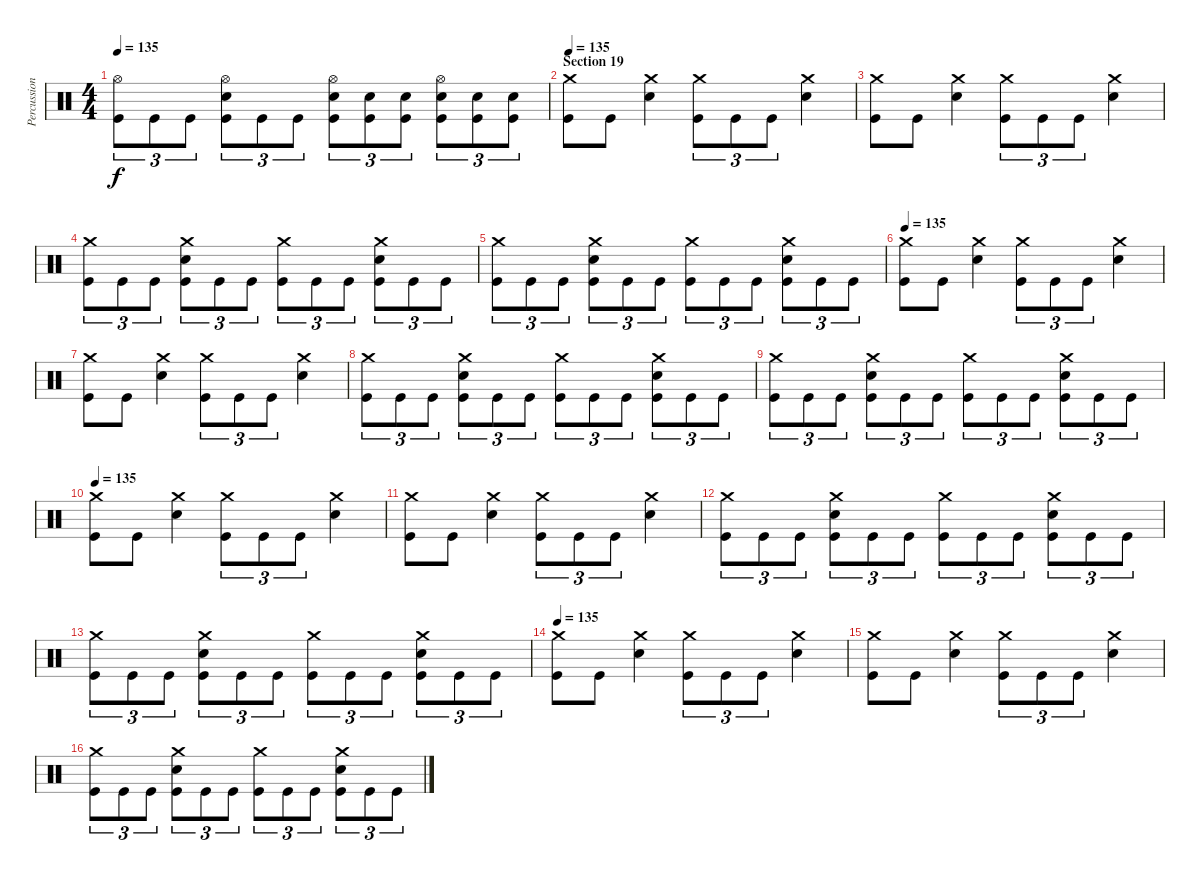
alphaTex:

\track ("Percussions" "Percussion") {instrument percussion}
\staff {score}
\articulation defaults
\ts (4 4)
\tempo 135
\clef neutral
\ks c
("Hi-Hat (open)" "Kick (hit)").8{tu (3 2) dy f} "Kick (hit)".8{tu (3 2)} "Kick (hit)".8{tu (3 2)} ("Hi-Hat (open)" "Electric Snare (hit)" "Kick (hit)").8{tu (3 2)} "Kick (hit)".8{tu (3 2)} "Kick (hit)".8{tu (3 2)} ("Hi-Hat (open)" "Electric Snare (hit)" "Kick (hit)").8{tu (3 2)} ("Electric Snare (hit)" "Kick (hit)").8{tu (3 2)} ("Electric Snare (hit)" "Kick (hit)").8{tu (3 2)} ("Hi-Hat (open)" "Electric Snare (hit)" "Kick (hit)").8{tu (3 2)} ("Electric Snare (hit)" "Kick (hit)").8{tu (3 2)} ("Electric Snare (hit)" "Kick (hit)").8{tu (3 2)} |
\section ("" "Section 19")
\tempo 135
("Crash medium (hit)" "Kick (hit)").8 "Kick (hit)".8 ("Crash medium (hit)" "Electric Snare (hit)").4 ("Crash medium (hit)" "Kick (hit)").8{tu (3 2)} "Kick (hit)".8{tu (3 2)} "Kick (hit)".8{tu (3 2)} ("Crash medium (hit)" "Electric Snare (hit)").4 |
("Crash medium (hit)" "Kick (hit)").8 "Kick (hit)".8 ("Crash medium (hit)" "Electric Snare (hit)").4 ("Crash medium (hit)" "Kick (hit)").8{tu (3 2)} "Kick (hit)".8{tu (3 2)} "Kick (hit)".8{tu (3 2)} ("Crash medium (hit)" "Electric Snare (hit)").4 |
("Crash medium (hit)" "Kick (hit)").8{tu (3 2)} "Kick (hit)".8{tu (3 2)} "Kick (hit)".8{tu (3 2)} ("Crash medium (hit)" "Electric Snare (hit)" "Kick (hit)").8{tu (3 2)} "Kick (hit)".8{tu (3 2)} "Kick (hit)".8{tu (3 2)} ("Crash medium (hit)" "Kick (hit)").8{tu (3 2)} "Kick (hit)".8{tu (3 2)} "Kick (hit)".8{tu (3 2)} ("Crash medium (hit)" "Electric Snare (hit)" "Kick (hit)").8{tu (3 2)} "Kick (hit)".8{tu (3 2)} "Kick (hit)".8{tu (3 2)} |
("Crash medium (hit)" "Kick (hit)").8{tu (3 2)} "Kick (hit)".8{tu (3 2)} "Kick (hit)".8{tu (3 2)} ("Crash medium (hit)" "Electric Snare (hit)" "Kick (hit)").8{tu (3 2)} "Kick (hit)".8{tu (3 2)} "Kick (hit)".8{tu (3 2)} ("Crash medium (hit)" "Kick (hit)").8{tu (3 2)} "Kick (hit)".8{tu (3 2)} "Kick (hit)".8{tu (3 2)} ("Crash medium (hit)" "Electric Snare (hit)" "Kick (hit)").8{tu (3 2)} "Kick (hit)".8{tu (3 2)} "Kick (hit)".8{tu (3 2)} |
\tempo 135
("Crash medium (hit)" "Kick (hit)").8 "Kick (hit)".8 ("Crash medium (hit)" "Electric Snare (hit)").4 ("Crash medium (hit)" "Kick (hit)").8{tu (3 2)} "Kick (hit)".8{tu (3 2)} "Kick (hit)".8{tu (3 2)} ("Crash medium (hit)" "Electric Snare (hit)").4 |
("Crash medium (hit)" "Kick (hit)").8 "Kick (hit)".8 ("Crash medium (hit)" "Electric Snare (hit)").4 ("Crash medium (hit)" "Kick (hit)").8{tu (3 2)} "Kick (hit)".8{tu (3 2)} "Kick (hit)".8{tu (3 2)} ("Crash medium (hit)" "Electric Snare (hit)").4 |
("Crash medium (hit)" "Kick (hit)").8{tu (3 2)} "Kick (hit)".8{tu (3 2)} "Kick (hit)".8{tu (3 2)} ("Crash medium (hit)" "Electric Snare (hit)" "Kick (hit)").8{tu (3 2)} "Kick (hit)".8{tu (3 2)} "Kick (hit)".8{tu (3 2)} ("Crash medium (hit)" "Kick (hit)").8{tu (3 2)} "Kick (hit)".8{tu (3 2)} "Kick (hit)".8{tu (3 2)} ("Crash medium (hit)" "Electric Snare (hit)" "Kick (hit)").8{tu (3 2)} "Kick (hit)".8{tu (3 2)} "Kick (hit)".8{tu (3 2)} |
("Crash medium (hit)" "Kick (hit)").8{tu (3 2)} "Kick (hit)".8{tu (3 2)} "Kick (hit)".8{tu (3 2)} ("Crash medium (hit)" "Electric Snare (hit)" "Kick (hit)").8{tu (3 2)} "Kick (hit)".8{tu (3 2)} "Kick (hit)".8{tu (3 2)} ("Crash medium (hit)" "Kick (hit)").8{tu (3 2)} "Kick (hit)".8{tu (3 2)} "Kick (hit)".8{tu (3 2)} ("Crash medium (hit)" "Electric Snare (hit)" "Kick (hit)").8{tu (3 2)} "Kick (hit)".8{tu (3 2)} "Kick (hit)".8{tu (3 2)} |
\tempo 135
("Crash medium (hit)" "Kick (hit)").8 "Kick (hit)".8 ("Crash medium (hit)" "Electric Snare (hit)").4 ("Crash medium (hit)" "Kick (hit)").8{tu (3 2)} "Kick (hit)".8{tu (3 2)} "Kick (hit)".8{tu (3 2)} ("Crash medium (hit)" "Electric Snare (hit)").4 |
("Crash medium (hit)" "Kick (hit)").8 "Kick (hit)".8 ("Crash medium (hit)" "Electric Snare (hit)").4 ("Crash medium (hit)" "Kick (hit)").8{tu (3 2)} "Kick (hit)".8{tu (3 2)} "Kick (hit)".8{tu (3 2)} ("Crash medium (hit)" "Electric Snare (hit)").4 |
("Crash medium (hit)" "Kick (hit)").8{tu (3 2)} "Kick (hit)".8{tu (3 2)} "Kick (hit)".8{tu (3 2)} ("Crash medium (hit)" "Electric Snare (hit)" "Kick (hit)").8{tu (3 2)} "Kick (hit)".8{tu (3 2)} "Kick (hit)".8{tu (3 2)} ("Crash medium (hit)" "Kick (hit)").8{tu (3 2)} "Kick (hit)".8{tu (3 2)} "Kick (hit)".8{tu (3 2)} ("Crash medium (hit)" "Electric Snare (hit)" "Kick (hit)").8{tu (3 2)} "Kick (hit)".8{tu (3 2)} "Kick (hit)".8{tu (3 2)} |
("Crash medium (hit)" "Kick (hit)").8{tu (3 2)} "Kick (hit)".8{tu (3 2)} "Kick (hit)".8{tu (3 2)} ("Crash medium (hit)" "Electric Snare (hit)" "Kick (hit)").8{tu (3 2)} "Kick (hit)".8{tu (3 2)} "Kick (hit)".8{tu (3 2)} ("Crash medium (hit)" "Kick (hit)").8{tu (3 2)} "Kick (hit)".8{tu (3 2)} "Kick (hit)".8{tu (3 2)} ("Crash medium (hit)" "Electric Snare (hit)" "Kick (hit)").8{tu (3 2)} "Kick (hit)".8{tu (3 2)} "Kick (hit)".8{tu (3 2)} |
\tempo 135
("Crash medium (hit)" "Kick (hit)").8 "Kick (hit)".8 ("Crash medium (hit)" "Electric Snare (hit)").4 ("Crash medium (hit)" "Kick (hit)").8{tu (3 2)} "Kick (hit)".8{tu (3 2)} "Kick (hit)".8{tu (3 2)} ("Crash medium (hit)" "Electric Snare (hit)").4 |
("Crash medium (hit)" "Kick (hit)").8 "Kick (hit)".8 ("Crash medium (hit)" "Electric Snare (hit)").4 ("Crash medium (hit)" "Kick (hit)").8{tu (3 2)} "Kick (hit)".8{tu (3 2)} "Kick (hit)".8{tu (3 2)} ("Crash medium (hit)" "Electric Snare (hit)").4 |
("Crash medium (hit)" "Kick (hit)").8{tu (3 2)} "Kick (hit)".8{tu (3 2)} "Kick (hit)".8{tu (3 2)} ("Crash medium (hit)" "Electric Snare (hit)" "Kick (hit)").8{tu (3 2)} "Kick (hit)".8{tu (3 2)} "Kick (hit)".8{tu (3 2)} ("Crash medium (hit)" "Kick (hit)").8{tu (3 2)} "Kick (hit)".8{tu (3 2)} "Kick (hit)".8{tu (3 2)} ("Crash medium (hit)" "Electric Snare (hit)" "Kick (hit)").8{tu (3 2)} "Kick (hit)".8{tu (3 2)} "Kick (hit)".8{tu (3 2)}
